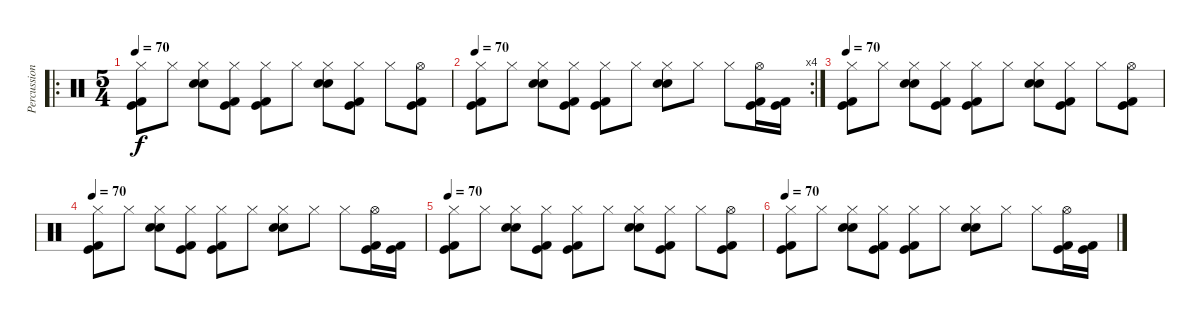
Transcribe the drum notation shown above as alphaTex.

\track ("Percussion" "Percussion") {instrument percussion}
\staff {score}
\articulation defaults
\ro
\ts (5 4)
\tempo 70
\clef neutral
\ks c
("Hi-Hat (closed)" "Kick (hit) 2" "Kick (hit)").8{dy f} "Hi-Hat (closed)".8 ("Hi-Hat (closed)" "Electric Snare (hit)" "Snare (hit) 2").8 ("Hi-Hat (closed)" "Kick (hit) 2" "Kick (hit)").8 ("Hi-Hat (closed)" "Kick (hit) 2" "Kick (hit)").8 "Hi-Hat (closed)".8 ("Hi-Hat (closed)" "Electric Snare (hit)" "Snare (hit) 2").8 ("Hi-Hat (closed)" "Kick (hit) 2" "Kick (hit)").8 "Hi-Hat (closed)".8 ("Hi-Hat (open)" "Kick (hit) 2" "Kick (hit)").8 |
\rc 4
\tempo 70
("Hi-Hat (closed)" "Kick (hit) 2" "Kick (hit)").8 "Hi-Hat (closed)".8 ("Hi-Hat (closed)" "Electric Snare (hit)" "Snare (hit) 2").8 ("Hi-Hat (closed)" "Kick (hit) 2" "Kick (hit)").8 ("Hi-Hat (closed)" "Kick (hit) 2" "Kick (hit)").8 "Hi-Hat (closed)".8 ("Hi-Hat (closed)" "Electric Snare (hit)" "Snare (hit) 2").8 "Hi-Hat (closed)".8 "Hi-Hat (closed)".8 ("Hi-Hat (open)" "Kick (hit) 2" "Kick (hit)").16 ("Kick (hit) 2" "Kick (hit)").16 |
\tempo 70
("Hi-Hat (closed)" "Kick (hit) 2" "Kick (hit)").8{volume 10} "Hi-Hat (closed)".8 ("Hi-Hat (closed)" "Electric Snare (hit)" "Snare (hit) 2").8 ("Hi-Hat (closed)" "Kick (hit) 2" "Kick (hit)").8 ("Hi-Hat (closed)" "Kick (hit) 2" "Kick (hit)").8 "Hi-Hat (closed)".8 ("Hi-Hat (closed)" "Electric Snare (hit)" "Snare (hit) 2").8 ("Hi-Hat (closed)" "Kick (hit) 2" "Kick (hit)").8 "Hi-Hat (closed)".8 ("Hi-Hat (open)" "Kick (hit) 2" "Kick (hit)").8 |
\tempo 70
("Hi-Hat (closed)" "Kick (hit) 2" "Kick (hit)").8{volume 6} "Hi-Hat (closed)".8 ("Hi-Hat (closed)" "Electric Snare (hit)" "Snare (hit) 2").8 ("Hi-Hat (closed)" "Kick (hit) 2" "Kick (hit)").8 ("Hi-Hat (closed)" "Kick (hit) 2" "Kick (hit)").8 "Hi-Hat (closed)".8 ("Hi-Hat (closed)" "Electric Snare (hit)" "Snare (hit) 2").8 "Hi-Hat (closed)".8 "Hi-Hat (closed)".8 ("Hi-Hat (open)" "Kick (hit) 2" "Kick (hit)").16 ("Kick (hit) 2" "Kick (hit)").16 |
\tempo 70
("Hi-Hat (closed)" "Kick (hit) 2" "Kick (hit)").8{volume 3} "Hi-Hat (closed)".8 ("Hi-Hat (closed)" "Electric Snare (hit)" "Snare (hit) 2").8 ("Hi-Hat (closed)" "Kick (hit) 2" "Kick (hit)").8 ("Hi-Hat (closed)" "Kick (hit) 2" "Kick (hit)").8 "Hi-Hat (closed)".8 ("Hi-Hat (closed)" "Electric Snare (hit)" "Snare (hit) 2").8 ("Hi-Hat (closed)" "Kick (hit) 2" "Kick (hit)").8 "Hi-Hat (closed)".8 ("Hi-Hat (open)" "Kick (hit) 2" "Kick (hit)").8 |
\tempo 70
("Hi-Hat (closed)" "Kick (hit) 2" "Kick (hit)").8{volume 0} "Hi-Hat (closed)".8 ("Hi-Hat (closed)" "Electric Snare (hit)" "Snare (hit) 2").8 ("Hi-Hat (closed)" "Kick (hit) 2" "Kick (hit)").8 ("Hi-Hat (closed)" "Kick (hit) 2" "Kick (hit)").8 "Hi-Hat (closed)".8 ("Hi-Hat (closed)" "Electric Snare (hit)" "Snare (hit) 2").8 "Hi-Hat (closed)".8 "Hi-Hat (closed)".8 ("Hi-Hat (open)" "Kick (hit) 2" "Kick (hit)").16 ("Kick (hit) 2" "Kick (hit)").16
